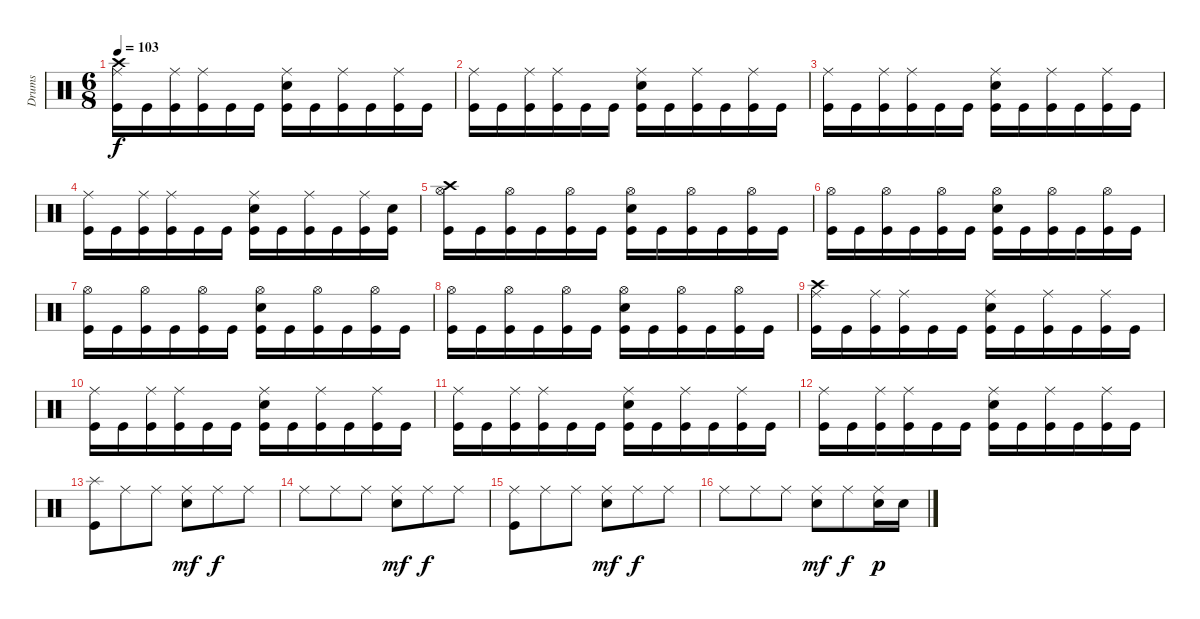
\track ("Drums" "Drums") {instrument percussion}
\staff {score}
\articulation defaults
\ts (6 8)
\tempo 103
\clef neutral
\ks c
("Crash high (hit)" "Ride (middle)" "Kick (hit)").16{dy f} "Kick (hit)".16 ("Ride (middle)" "Kick (hit)").16 ("Ride (middle)" "Kick (hit)").16 "Kick (hit)".16 "Kick (hit)".16 ("Ride (middle)" "Electric Snare (hit)" "Kick (hit)").16 "Kick (hit)".16 ("Ride (middle)" "Kick (hit)").16 "Kick (hit)".16 ("Ride (middle)" "Kick (hit)").16 "Kick (hit)".16 |
("Ride (middle)" "Kick (hit)").16 "Kick (hit)".16 ("Ride (middle)" "Kick (hit)").16 ("Ride (middle)" "Kick (hit)").16 "Kick (hit)".16 "Kick (hit)".16 ("Ride (middle)" "Electric Snare (hit)" "Kick (hit)").16 "Kick (hit)".16 ("Ride (middle)" "Kick (hit)").16 "Kick (hit)".16 ("Ride (middle)" "Kick (hit)").16 "Kick (hit)".16 |
("Ride (middle)" "Kick (hit)").16 "Kick (hit)".16 ("Ride (middle)" "Kick (hit)").16 ("Ride (middle)" "Kick (hit)").16 "Kick (hit)".16 "Kick (hit)".16 ("Ride (middle)" "Electric Snare (hit)" "Kick (hit)").16 "Kick (hit)".16 ("Ride (middle)" "Kick (hit)").16 "Kick (hit)".16 ("Ride (middle)" "Kick (hit)").16 "Kick (hit)".16 |
("Ride (middle)" "Kick (hit)").16 "Kick (hit)".16 ("Ride (middle)" "Kick (hit)").16 ("Ride (middle)" "Kick (hit)").16 "Kick (hit)".16 "Kick (hit)".16 ("Ride (middle)" "Electric Snare (hit)" "Kick (hit)").16 "Kick (hit)".16 ("Ride (middle)" "Kick (hit)").16 "Kick (hit)".16 ("Ride (middle)" "Kick (hit)").16 ("Electric Snare (hit)" "Kick (hit)").16 |
("Crash high (hit)" "Hi-Hat (open)" "Kick (hit)").16 "Kick (hit)".16 ("Hi-Hat (open)" "Kick (hit)").16 "Kick (hit)".16 ("Hi-Hat (open)" "Kick (hit)").16 "Kick (hit)".16 ("Hi-Hat (open)" "Electric Snare (hit)" "Kick (hit)").16 "Kick (hit)".16 ("Hi-Hat (open)" "Kick (hit)").16 "Kick (hit)".16 ("Hi-Hat (open)" "Kick (hit)").16 "Kick (hit)".16 |
("Hi-Hat (open)" "Kick (hit)").16 "Kick (hit)".16 ("Hi-Hat (open)" "Kick (hit)").16 "Kick (hit)".16 ("Hi-Hat (open)" "Kick (hit)").16 "Kick (hit)".16 ("Hi-Hat (open)" "Electric Snare (hit)" "Kick (hit)").16 "Kick (hit)".16 ("Hi-Hat (open)" "Kick (hit)").16 "Kick (hit)".16 ("Hi-Hat (open)" "Kick (hit)").16 "Kick (hit)".16 |
("Hi-Hat (open)" "Kick (hit)").16 "Kick (hit)".16 ("Hi-Hat (open)" "Kick (hit)").16 "Kick (hit)".16 ("Hi-Hat (open)" "Kick (hit)").16 "Kick (hit)".16 ("Hi-Hat (open)" "Electric Snare (hit)" "Kick (hit)").16 "Kick (hit)".16 ("Hi-Hat (open)" "Kick (hit)").16 "Kick (hit)".16 ("Hi-Hat (open)" "Kick (hit)").16 "Kick (hit)".16 |
("Hi-Hat (open)" "Kick (hit)").16 "Kick (hit)".16 ("Hi-Hat (open)" "Kick (hit)").16 "Kick (hit)".16 ("Hi-Hat (open)" "Kick (hit)").16 "Kick (hit)".16 ("Hi-Hat (open)" "Electric Snare (hit)" "Kick (hit)").16 "Kick (hit)".16 ("Hi-Hat (open)" "Kick (hit)").16 "Kick (hit)".16 ("Hi-Hat (open)" "Kick (hit)").16 "Kick (hit)".16 |
("Crash high (hit)" "Ride (middle)" "Kick (hit)").16 "Kick (hit)".16 ("Ride (middle)" "Kick (hit)").16 ("Ride (middle)" "Kick (hit)").16 "Kick (hit)".16 "Kick (hit)".16 ("Ride (middle)" "Electric Snare (hit)" "Kick (hit)").16 "Kick (hit)".16 ("Ride (middle)" "Kick (hit)").16 "Kick (hit)".16 ("Ride (middle)" "Kick (hit)").16 "Kick (hit)".16 |
("Ride (middle)" "Kick (hit)").16 "Kick (hit)".16 ("Ride (middle)" "Kick (hit)").16 ("Ride (middle)" "Kick (hit)").16 "Kick (hit)".16 "Kick (hit)".16 ("Ride (middle)" "Electric Snare (hit)" "Kick (hit)").16 "Kick (hit)".16 ("Ride (middle)" "Kick (hit)").16 "Kick (hit)".16 ("Ride (middle)" "Kick (hit)").16 "Kick (hit)".16 |
("Ride (middle)" "Kick (hit)").16 "Kick (hit)".16 ("Ride (middle)" "Kick (hit)").16 ("Ride (middle)" "Kick (hit)").16 "Kick (hit)".16 "Kick (hit)".16 ("Ride (middle)" "Electric Snare (hit)" "Kick (hit)").16 "Kick (hit)".16 ("Ride (middle)" "Kick (hit)").16 "Kick (hit)".16 ("Ride (middle)" "Kick (hit)").16 "Kick (hit)".16 |
("Ride (middle)" "Kick (hit)").16 "Kick (hit)".16 ("Ride (middle)" "Kick (hit)").16 ("Ride (middle)" "Kick (hit)").16 "Kick (hit)".16 "Kick (hit)".16 ("Ride (middle)" "Electric Snare (hit)" "Kick (hit)").16 "Kick (hit)".16 ("Ride (middle)" "Kick (hit)").16 "Kick (hit)".16 ("Ride (middle)" "Kick (hit)").16 "Kick (hit)".16 |
("Splash (hit)" "Kick (hit)").8 "Ride (middle)".8 "Ride (middle)".8 ("Ride (middle)" "Electric Snare (hit)").8{dy mf} "Ride (middle)".8{dy f} "Ride (middle)".8 |
"Ride (middle)".8 "Ride (middle)".8 "Ride (middle)".8 ("Ride (middle)" "Electric Snare (hit)").8{dy mf} "Ride (middle)".8{dy f} "Ride (middle)".8 |
("Ride (middle)" "Kick (hit)").8 "Ride (middle)".8 "Ride (middle)".8 ("Ride (middle)" "Electric Snare (hit)").8{dy mf} "Ride (middle)".8{dy f} "Ride (middle)".8 |
"Ride (middle)".8 "Ride (middle)".8 "Ride (middle)".8 ("Ride (middle)" "Electric Snare (hit)").8{dy mf} "Ride (middle)".8{dy f} ("Ride (middle)" "Electric Snare (hit)").16{dy p} "Electric Snare (hit)".16
